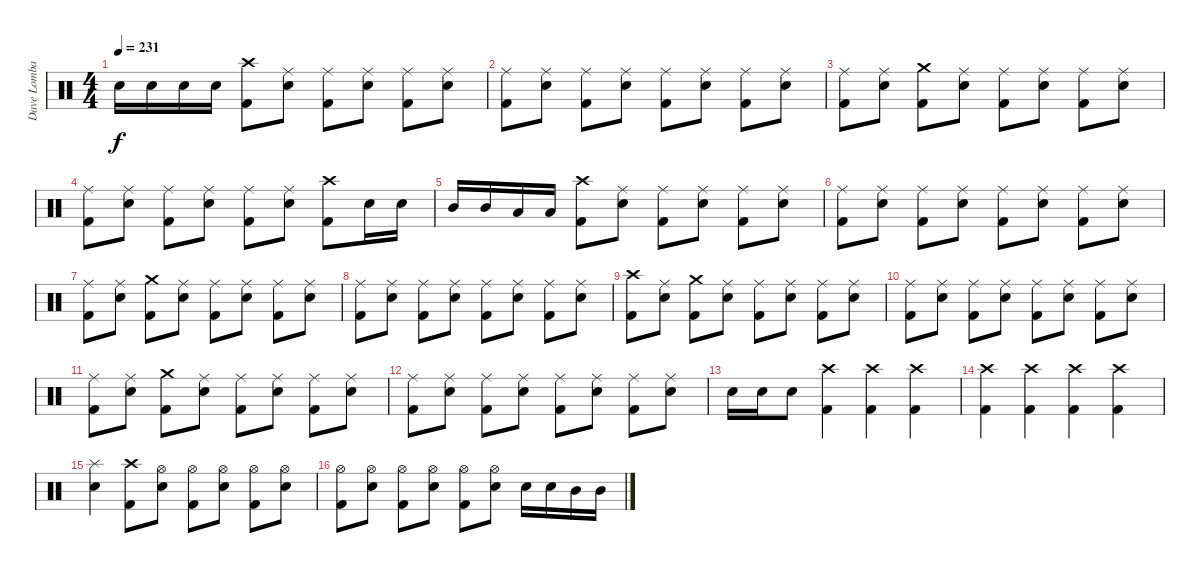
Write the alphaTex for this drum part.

\track ("Dave Lombardo" "Dave Lomba") {instrument percussion}
\staff {score}
\articulation defaults
\ts (4 4)
\tempo 231
\clef neutral
\ks c "Electric Snare (hit)".16{dy f} "Electric Snare (hit)".16 "Electric Snare (hit)".16 "Electric Snare (hit)".16
("Crash high (hit)" "Kick (hit) 2").8 ("Ride (middle)" "Electric Snare (hit)").8 ("Ride (middle)" "Kick (hit) 2").8 ("Ride (middle)" "Electric Snare (hit)").8 ("Ride (middle)" "Kick (hit) 2").8 ("Ride (middle)" "Electric Snare (hit)").8 |
("Ride (middle)" "Kick (hit) 2").8 ("Ride (middle)" "Electric Snare (hit)").8 ("Ride (middle)" "Kick (hit) 2").8 ("Ride (middle)" "Electric Snare (hit)").8 ("Ride (middle)" "Kick (hit) 2").8 ("Ride (middle)" "Electric Snare (hit)").8 ("Ride (middle)" "Kick (hit) 2").8 ("Ride (middle)" "Electric Snare (hit)").8 |
("Ride (middle)" "Kick (hit) 2").8 ("Ride (middle)" "Electric Snare (hit)").8 ("Crash medium (hit)" "Kick (hit) 2").8 ("Ride (middle)" "Electric Snare (hit)").8 ("Ride (middle)" "Kick (hit) 2").8 ("Ride (middle)" "Electric Snare (hit)").8 ("Ride (middle)" "Kick (hit) 2").8 ("Ride (middle)" "Electric Snare (hit)").8 |
("Ride (middle)" "Kick (hit) 2").8 ("Ride (middle)" "Electric Snare (hit)").8 ("Ride (middle)" "Kick (hit) 2").8 ("Ride (middle)" "Electric Snare (hit)").8 ("Ride (middle)" "Kick (hit) 2").8 ("Ride (middle)" "Electric Snare (hit)").8 ("Crash high (hit)" "Kick (hit) 2").8 "Electric Snare (hit)".16 "Electric Snare (hit)".16 |
"Mid Tom (hit)".16 "Mid Tom (hit)".16 "Low Tom (hit)".16 "Low Tom (hit)".16 ("Crash high (hit)" "Kick (hit) 2").8 ("Ride (middle)" "Electric Snare (hit)").8 ("Ride (middle)" "Kick (hit) 2").8 ("Ride (middle)" "Electric Snare (hit)").8 ("Ride (middle)" "Kick (hit) 2").8 ("Ride (middle)" "Electric Snare (hit)").8 |
("Ride (middle)" "Kick (hit) 2").8 ("Ride (middle)" "Electric Snare (hit)").8 ("Ride (middle)" "Kick (hit) 2").8 ("Ride (middle)" "Electric Snare (hit)").8 ("Ride (middle)" "Kick (hit) 2").8 ("Ride (middle)" "Electric Snare (hit)").8 ("Ride (middle)" "Kick (hit) 2").8 ("Ride (middle)" "Electric Snare (hit)").8 |
("Ride (middle)" "Kick (hit) 2").8 ("Ride (middle)" "Electric Snare (hit)").8 ("Crash medium (hit)" "Kick (hit) 2").8 ("Ride (middle)" "Electric Snare (hit)").8 ("Ride (middle)" "Kick (hit) 2").8 ("Ride (middle)" "Electric Snare (hit)").8 ("Ride (middle)" "Kick (hit) 2").8 ("Ride (middle)" "Electric Snare (hit)").8 |
("Ride (middle)" "Kick (hit) 2").8 ("Ride (middle)" "Electric Snare (hit)").8 ("Ride (middle)" "Kick (hit) 2").8 ("Ride (middle)" "Electric Snare (hit)").8 ("Ride (middle)" "Kick (hit) 2").8 ("Ride (middle)" "Electric Snare (hit)").8 ("Ride (middle)" "Kick (hit) 2").8 ("Ride (middle)" "Electric Snare (hit)").8 |
("Kick (hit) 2" "Crash high (hit)").8 ("Ride (middle)" "Electric Snare (hit)").8 ("Crash medium (hit)" "Kick (hit) 2").8 ("Ride (middle)" "Electric Snare (hit)").8 ("Ride (middle)" "Kick (hit) 2").8 ("Ride (middle)" "Electric Snare (hit)").8 ("Ride (middle)" "Kick (hit) 2").8 ("Ride (middle)" "Electric Snare (hit)").8 |
("Ride (middle)" "Kick (hit) 2").8 ("Ride (middle)" "Electric Snare (hit)").8 ("Ride (middle)" "Kick (hit) 2").8 ("Ride (middle)" "Electric Snare (hit)").8 ("Ride (middle)" "Kick (hit) 2").8 ("Ride (middle)" "Electric Snare (hit)").8 ("Ride (middle)" "Kick (hit) 2").8 ("Ride (middle)" "Electric Snare (hit)").8 |
("Ride (middle)" "Kick (hit) 2").8 ("Ride (middle)" "Electric Snare (hit)").8 ("Crash medium (hit)" "Kick (hit) 2").8 ("Ride (middle)" "Electric Snare (hit)").8 ("Ride (middle)" "Kick (hit) 2").8 ("Ride (middle)" "Electric Snare (hit)").8 ("Ride (middle)" "Kick (hit) 2").8 ("Ride (middle)" "Electric Snare (hit)").8 |
("Ride (middle)" "Kick (hit) 2").8 ("Ride (middle)" "Electric Snare (hit)").8 ("Ride (middle)" "Kick (hit) 2").8 ("Ride (middle)" "Electric Snare (hit)").8 ("Ride (middle)" "Kick (hit) 2").8 ("Ride (middle)" "Electric Snare (hit)").8 ("Ride (middle)" "Kick (hit) 2").8 ("Ride (middle)" "Electric Snare (hit)").8 |
"Electric Snare (hit)".16 "Electric Snare (hit)".16 "Electric Snare (hit)".8 ("Crash high (hit)" "Kick (hit) 2").4 ("Crash high (hit)" "Kick (hit) 2").4 ("Crash high (hit)" "Kick (hit) 2").4 |
("Crash high (hit)" "Kick (hit) 2").4 ("Crash high (hit)" "Kick (hit) 2").4 ("Crash high (hit)" "Kick (hit) 2").4 ("Crash high (hit)" "Kick (hit) 2").4 |
("Splash (hit)" "Electric Snare (hit)").4 ("Crash high (hit)" "Kick (hit) 2").8 ("Hi-Hat (open)" "Electric Snare (hit)").8 ("Hi-Hat (open)" "Kick (hit) 2").8 ("Hi-Hat (open)" "Electric Snare (hit)").8 ("Hi-Hat (open)" "Kick (hit) 2").8 ("Hi-Hat (open)" "Electric Snare (hit)").8 |
("Hi-Hat (open)" "Kick (hit) 2").8 ("Hi-Hat (open)" "Electric Snare (hit)").8 ("Hi-Hat (open)" "Kick (hit) 2").8 ("Hi-Hat (open)" "Electric Snare (hit)").8 ("Hi-Hat (open)" "Kick (hit) 2").8 ("Hi-Hat (open)" "Electric Snare (hit)").8 "Electric Snare (hit)".16 "Electric Snare (hit)".16 "Mid Tom (hit)".16 "Mid Tom (hit)".16
